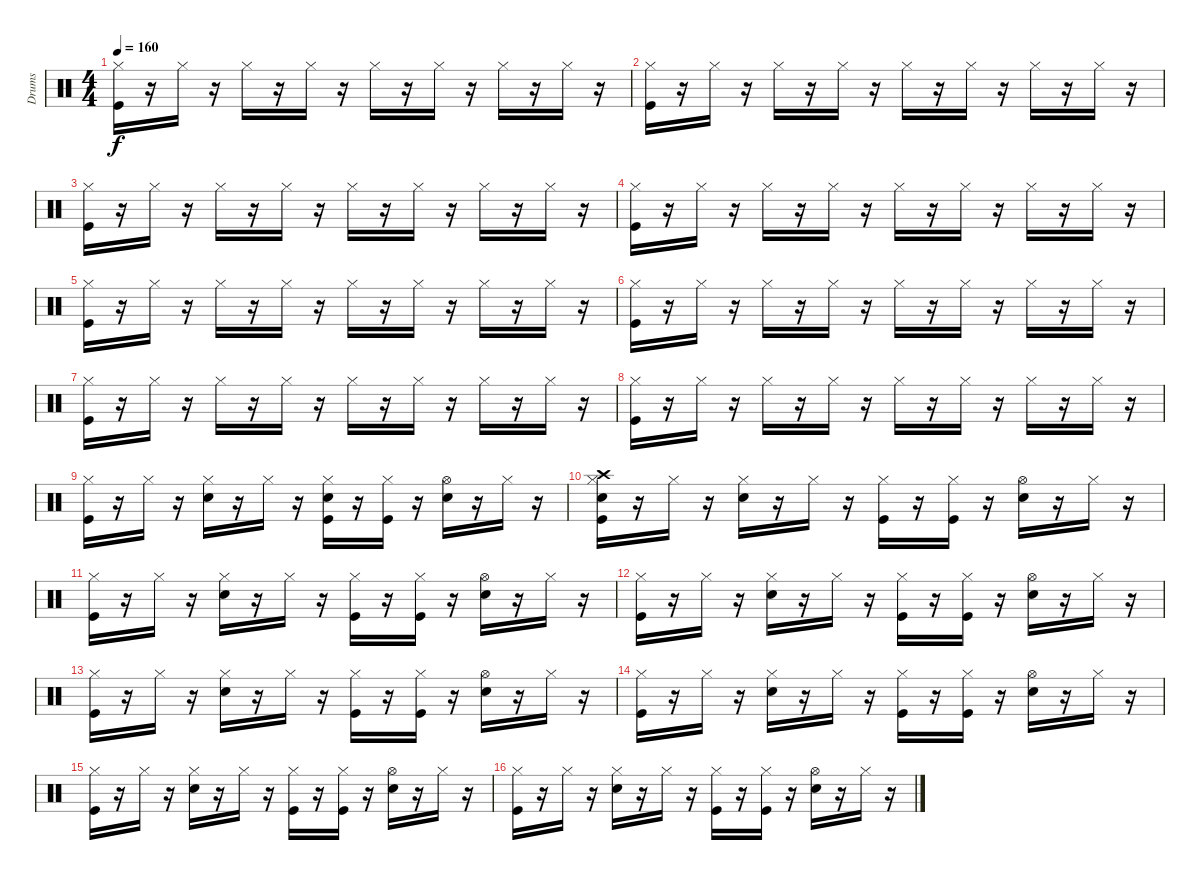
\track ("Drums" "Drums") {instrument percussion}
\staff {score}
\articulation defaults
\ts (4 4)
\tempo 160
\clef neutral
\ks c
("Hi-Hat (closed)" "Kick (hit)").16{dy f} r.16 "Hi-Hat (closed)".16 r.16 "Hi-Hat (closed)".16 r.16 "Hi-Hat (closed)".16 r.16 "Hi-Hat (closed)".16 r.16 "Hi-Hat (closed)".16 r.16 "Hi-Hat (closed)".16 r.16 "Hi-Hat (closed)".16 r.16 |
("Hi-Hat (closed)" "Kick (hit)").16 r.16 "Hi-Hat (closed)".16 r.16 "Hi-Hat (closed)".16 r.16 "Hi-Hat (closed)".16 r.16 "Hi-Hat (closed)".16 r.16 "Hi-Hat (closed)".16 r.16 "Hi-Hat (closed)".16 r.16 "Hi-Hat (closed)".16 r.16 |
("Hi-Hat (closed)" "Kick (hit)").16 r.16 "Hi-Hat (closed)".16 r.16 "Hi-Hat (closed)".16 r.16 "Hi-Hat (closed)".16 r.16 "Hi-Hat (closed)".16 r.16 "Hi-Hat (closed)".16 r.16 "Hi-Hat (closed)".16 r.16 "Hi-Hat (closed)".16 r.16 |
("Hi-Hat (closed)" "Kick (hit)").16 r.16 "Hi-Hat (closed)".16 r.16 "Hi-Hat (closed)".16 r.16 "Hi-Hat (closed)".16 r.16 "Hi-Hat (closed)".16 r.16 "Hi-Hat (closed)".16 r.16 "Hi-Hat (closed)".16 r.16 "Hi-Hat (closed)".16 r.16 |
("Hi-Hat (closed)" "Kick (hit)").16 r.16 "Hi-Hat (closed)".16 r.16 "Hi-Hat (closed)".16 r.16 "Hi-Hat (closed)".16 r.16 "Hi-Hat (closed)".16 r.16 "Hi-Hat (closed)".16 r.16 "Hi-Hat (closed)".16 r.16 "Hi-Hat (closed)".16 r.16 |
("Hi-Hat (closed)" "Kick (hit)").16 r.16 "Hi-Hat (closed)".16 r.16 "Hi-Hat (closed)".16 r.16 "Hi-Hat (closed)".16 r.16 "Hi-Hat (closed)".16 r.16 "Hi-Hat (closed)".16 r.16 "Hi-Hat (closed)".16 r.16 "Hi-Hat (closed)".16 r.16 |
("Hi-Hat (closed)" "Kick (hit)").16 r.16 "Hi-Hat (closed)".16 r.16 "Hi-Hat (closed)".16 r.16 "Hi-Hat (closed)".16 r.16 "Hi-Hat (closed)".16 r.16 "Hi-Hat (closed)".16 r.16 "Hi-Hat (closed)".16 r.16 "Hi-Hat (closed)".16 r.16 |
("Hi-Hat (closed)" "Kick (hit)").16 r.16 "Hi-Hat (closed)".16 r.16 "Hi-Hat (closed)".16 r.16 "Hi-Hat (closed)".16 r.16 "Hi-Hat (closed)".16 r.16 "Hi-Hat (closed)".16 r.16 "Hi-Hat (closed)".16 r.16 "Hi-Hat (closed)".16 r.16 |
("Hi-Hat (closed)" "Kick (hit)").16 r.16 "Hi-Hat (closed)".16 r.16 ("Hi-Hat (closed)" "Snare (hit) 2").16 r.16 "Hi-Hat (closed)".16 r.16 ("Snare (hit) 2" "Hi-Hat (closed)" "Kick (hit)").16 r.16 ("Kick (hit)" "Hi-Hat (closed)").16 r.16 ("Hi-Hat (open)" "Snare (hit) 2").16 r.16 "Hi-Hat (closed)".16 r.16 |
("Crash high (hit)" "Snare (hit) 2" "Hi-Hat (closed)" "Kick (hit)").16 r.16 "Hi-Hat (closed)".16 r.16 ("Hi-Hat (closed)" "Snare (hit) 2").16 r.16 "Hi-Hat (closed)".16 r.16 ("Hi-Hat (closed)" "Kick (hit)").16 r.16 ("Kick (hit)" "Hi-Hat (closed)").16 r.16 ("Hi-Hat (open)" "Snare (hit) 2").16 r.16 "Hi-Hat (closed)".16 r.16 |
("Hi-Hat (closed)" "Kick (hit)").16 r.16 "Hi-Hat (closed)".16 r.16 ("Hi-Hat (closed)" "Snare (hit) 2").16 r.16 "Hi-Hat (closed)".16 r.16 ("Hi-Hat (closed)" "Kick (hit)").16 r.16 ("Kick (hit)" "Hi-Hat (closed)").16 r.16 ("Hi-Hat (open)" "Snare (hit) 2").16 r.16 "Hi-Hat (closed)".16 r.16 |
("Hi-Hat (closed)" "Kick (hit)").16 r.16 "Hi-Hat (closed)".16 r.16 ("Hi-Hat (closed)" "Snare (hit) 2").16 r.16 "Hi-Hat (closed)".16 r.16 ("Hi-Hat (closed)" "Kick (hit)").16 r.16 ("Kick (hit)" "Hi-Hat (closed)").16 r.16 ("Hi-Hat (open)" "Snare (hit) 2").16 r.16 "Hi-Hat (closed)".16 r.16 |
("Hi-Hat (closed)" "Kick (hit)").16 r.16 "Hi-Hat (closed)".16 r.16 ("Hi-Hat (closed)" "Snare (hit) 2").16 r.16 "Hi-Hat (closed)".16 r.16 ("Hi-Hat (closed)" "Kick (hit)").16 r.16 ("Kick (hit)" "Hi-Hat (closed)").16 r.16 ("Hi-Hat (open)" "Snare (hit) 2").16 r.16 "Hi-Hat (closed)".16 r.16 |
("Hi-Hat (closed)" "Kick (hit)").16 r.16 "Hi-Hat (closed)".16 r.16 ("Hi-Hat (closed)" "Snare (hit) 2").16 r.16 "Hi-Hat (closed)".16 r.16 ("Hi-Hat (closed)" "Kick (hit)").16 r.16 ("Kick (hit)" "Hi-Hat (closed)").16 r.16 ("Hi-Hat (open)" "Snare (hit) 2").16 r.16 "Hi-Hat (closed)".16 r.16 |
("Hi-Hat (closed)" "Kick (hit)").16 r.16 "Hi-Hat (closed)".16 r.16 ("Hi-Hat (closed)" "Snare (hit) 2").16 r.16 "Hi-Hat (closed)".16 r.16 ("Hi-Hat (closed)" "Kick (hit)").16 r.16 ("Kick (hit)" "Hi-Hat (closed)").16 r.16 ("Hi-Hat (open)" "Snare (hit) 2").16 r.16 "Hi-Hat (closed)".16 r.16 |
("Hi-Hat (closed)" "Kick (hit)").16 r.16 "Hi-Hat (closed)".16 r.16 ("Hi-Hat (closed)" "Snare (hit) 2").16 r.16 "Hi-Hat (closed)".16 r.16 ("Hi-Hat (closed)" "Kick (hit)").16 r.16 ("Kick (hit)" "Hi-Hat (closed)").16 r.16 ("Hi-Hat (open)" "Snare (hit) 2").16 r.16 "Hi-Hat (closed)".16 r.16
